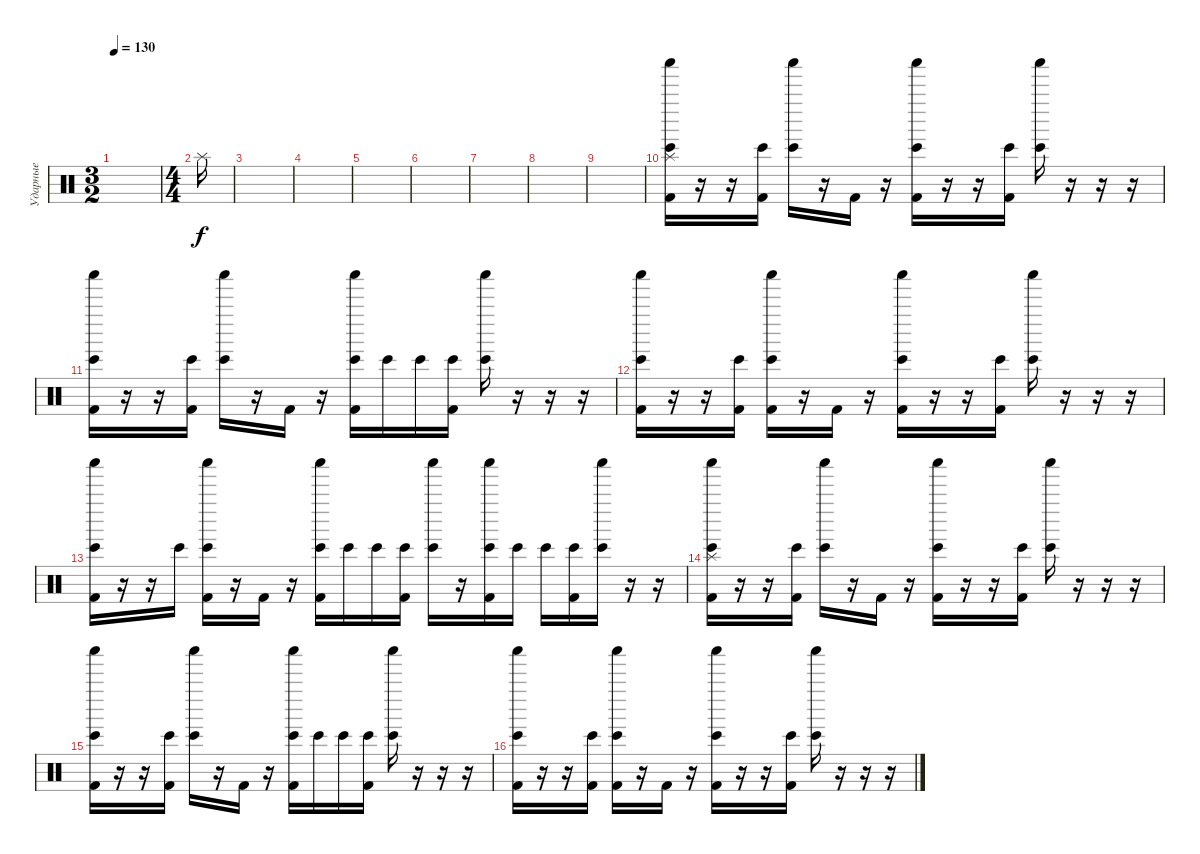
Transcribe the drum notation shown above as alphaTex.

\track ("Ударные" "Ударные") {instrument percussion}
\staff {score}
\articulation defaults
\ts (3 2)
\tempo 130
\clef neutral
\ks c
|
\ts (4 4)
"Splash (hit)".16 |
|
|
|
|
|
|
|
("Bongo High (hit)" "Splash (hit)" "Shaker (hit)" "Kick (hit) 2").16 r.16 r.16 ("Bongo High (hit)" "Kick (hit) 2").16 ("Bongo High (hit)" "Shaker (hit)").16 r.16 "Kick (hit) 2".16 r.16 ("Bongo High (hit)" "Shaker (hit)" "Kick (hit) 2").16 r.16 r.16 ("Bongo High (hit)" "Kick (hit) 2").16 ("Bongo High (hit)" "Shaker (hit)").16 r.16 r.16 r.16 |
("Bongo High (hit)" "Shaker (hit)" "Kick (hit) 2").16 r.16 r.16 ("Bongo High (hit)" "Kick (hit) 2").16 ("Bongo High (hit)" "Shaker (hit)").16 r.16 "Kick (hit) 2".16 r.16 ("Bongo High (hit)" "Shaker (hit)" "Kick (hit) 2").16 "Bongo High (hit)".16 "Bongo High (hit)".16 ("Bongo High (hit)" "Kick (hit) 2").16 ("Bongo High (hit)" "Shaker (hit)").16 r.16 r.16 r.16 |
("Bongo High (hit)" "Shaker (hit)" "Kick (hit) 2").16 r.16 r.16 ("Bongo High (hit)" "Kick (hit) 2").16 ("Bongo High (hit)" "Shaker (hit)" "Kick (hit) 2").16 r.16 "Kick (hit) 2".16 r.16 ("Bongo High (hit)" "Shaker (hit)" "Kick (hit) 2").16 r.16 r.16 ("Bongo High (hit)" "Kick (hit) 2").16 ("Bongo High (hit)" "Shaker (hit)").16 r.16 r.16 r.16 |
("Bongo High (hit)" "Shaker (hit)" "Kick (hit) 2").16 r.16 r.16 "Bongo High (hit)".16 ("Bongo High (hit)" "Shaker (hit)" "Kick (hit) 2").16 r.16 "Kick (hit) 2".16 r.16 ("Bongo High (hit)" "Shaker (hit)" "Kick (hit) 2").16 "Bongo High (hit)".16 "Bongo High (hit)".16 ("Bongo High (hit)" "Kick (hit) 2").16 ("Bongo High (hit)" "Shaker (hit)").16 r.16 ("Bongo High (hit)" "Shaker (hit)" "Kick (hit) 2").16 "Bongo High (hit)".16 "Bongo High (hit)".16 ("Bongo High (hit)" "Kick (hit) 2").16 ("Bongo High (hit)" "Shaker (hit)").16 r.16 r.16 |
("Bongo High (hit)" "Splash (hit)" "Shaker (hit)" "Kick (hit) 2").16 r.16 r.16 ("Bongo High (hit)" "Kick (hit) 2").16 ("Bongo High (hit)" "Shaker (hit)").16 r.16 "Kick (hit) 2".16 r.16 ("Bongo High (hit)" "Shaker (hit)" "Kick (hit) 2").16 r.16 r.16 ("Bongo High (hit)" "Kick (hit) 2").16 ("Bongo High (hit)" "Shaker (hit)").16 r.16 r.16 r.16 |
("Bongo High (hit)" "Shaker (hit)" "Kick (hit) 2").16 r.16 r.16 ("Bongo High (hit)" "Kick (hit) 2").16 ("Bongo High (hit)" "Shaker (hit)").16 r.16 "Kick (hit) 2".16 r.16 ("Bongo High (hit)" "Shaker (hit)" "Kick (hit) 2").16 "Bongo High (hit)".16 "Bongo High (hit)".16 ("Bongo High (hit)" "Kick (hit) 2").16 ("Bongo High (hit)" "Shaker (hit)").16 r.16 r.16 r.16 |
("Bongo High (hit)" "Shaker (hit)" "Kick (hit) 2").16 r.16 r.16 ("Bongo High (hit)" "Kick (hit) 2").16 ("Bongo High (hit)" "Shaker (hit)" "Kick (hit) 2").16 r.16 "Kick (hit) 2".16 r.16 ("Bongo High (hit)" "Shaker (hit)" "Kick (hit) 2").16 r.16 r.16 ("Bongo High (hit)" "Kick (hit) 2").16 ("Bongo High (hit)" "Shaker (hit)").16 r.16 r.16 r.16
